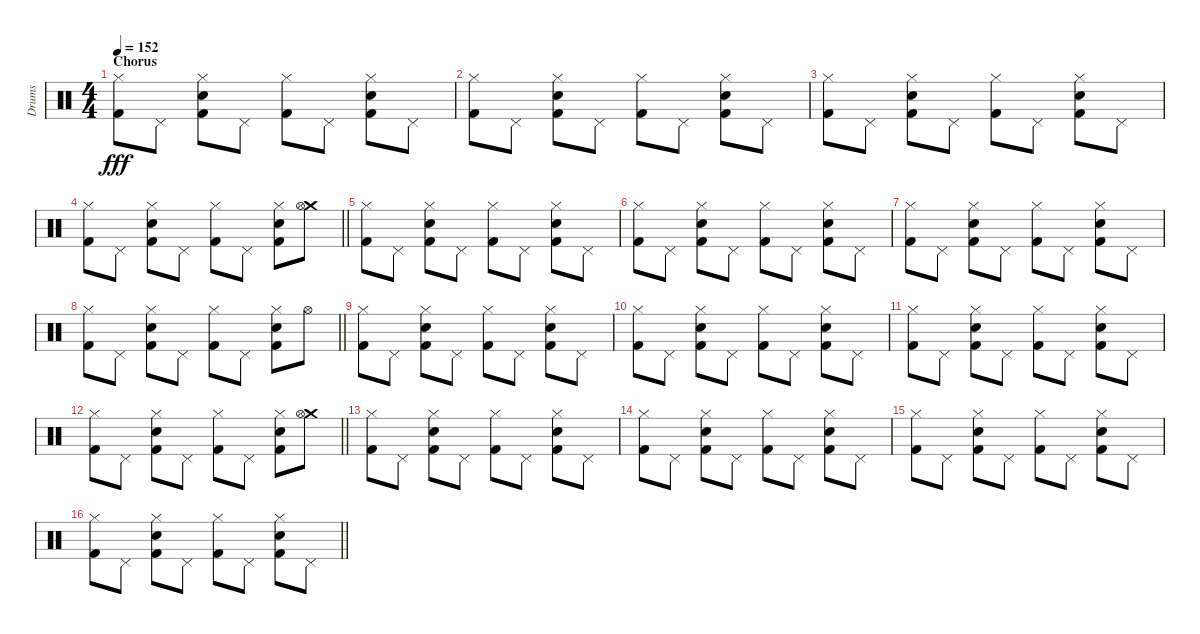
\track ("Drums" "Drums") {instrument percussion}
\staff {score}
\articulation defaults
\ts (4 4)
\section ("" "Chorus")
\tempo 152
\clef neutral
\ks c
("Hi-Hat (closed)" "Kick (hit) 2").8{dy fff} "Pedal Hi-Hat (hit)".8 ("Hi-Hat (closed)" "Electric Snare (hit)" "Kick (hit) 2").8 "Pedal Hi-Hat (hit)".8 ("Hi-Hat (closed)" "Kick (hit) 2").8 "Pedal Hi-Hat (hit)".8 ("Hi-Hat (closed)" "Electric Snare (hit)" "Kick (hit) 2").8 "Pedal Hi-Hat (hit)".8 |
("Hi-Hat (closed)" "Kick (hit) 2").8 "Pedal Hi-Hat (hit)".8 ("Hi-Hat (closed)" "Electric Snare (hit)" "Kick (hit) 2").8 "Pedal Hi-Hat (hit)".8 ("Hi-Hat (closed)" "Kick (hit) 2").8 "Pedal Hi-Hat (hit)".8 ("Hi-Hat (closed)" "Electric Snare (hit)" "Kick (hit) 2").8 "Pedal Hi-Hat (hit)".8 |
("Hi-Hat (closed)" "Kick (hit) 2").8 "Pedal Hi-Hat (hit)".8 ("Hi-Hat (closed)" "Electric Snare (hit)" "Kick (hit) 2").8 "Pedal Hi-Hat (hit)".8 ("Hi-Hat (closed)" "Kick (hit) 2").8 "Pedal Hi-Hat (hit)".8 ("Hi-Hat (closed)" "Electric Snare (hit)" "Kick (hit) 2").8 "Pedal Hi-Hat (hit)".8 |
\barLineRight lightlight
("Hi-Hat (closed)" "Kick (hit) 2").8 "Pedal Hi-Hat (hit)".8 ("Hi-Hat (closed)" "Electric Snare (hit)" "Kick (hit) 2").8 "Pedal Hi-Hat (hit)".8 ("Hi-Hat (closed)" "Kick (hit) 2").8 "Pedal Hi-Hat (hit)".8 ("Hi-Hat (closed)" "Electric Snare (hit)" "Kick (hit) 2").8 ("Crash medium (hit)" "Hi-Hat (open)").8 |
("Hi-Hat (closed)" "Kick (hit) 2").8 "Pedal Hi-Hat (hit)".8 ("Hi-Hat (closed)" "Electric Snare (hit)" "Kick (hit) 2").8 "Pedal Hi-Hat (hit)".8 ("Hi-Hat (closed)" "Kick (hit) 2").8 "Pedal Hi-Hat (hit)".8 ("Hi-Hat (closed)" "Electric Snare (hit)" "Kick (hit) 2").8 "Pedal Hi-Hat (hit)".8 |
("Hi-Hat (closed)" "Kick (hit) 2").8 "Pedal Hi-Hat (hit)".8 ("Hi-Hat (closed)" "Electric Snare (hit)" "Kick (hit) 2").8 "Pedal Hi-Hat (hit)".8 ("Hi-Hat (closed)" "Kick (hit) 2").8 "Pedal Hi-Hat (hit)".8 ("Hi-Hat (closed)" "Electric Snare (hit)" "Kick (hit) 2").8 "Pedal Hi-Hat (hit)".8 |
("Hi-Hat (closed)" "Kick (hit) 2").8 "Pedal Hi-Hat (hit)".8 ("Hi-Hat (closed)" "Electric Snare (hit)" "Kick (hit) 2").8 "Pedal Hi-Hat (hit)".8 ("Hi-Hat (closed)" "Kick (hit) 2").8 "Pedal Hi-Hat (hit)".8 ("Hi-Hat (closed)" "Electric Snare (hit)" "Kick (hit) 2").8 "Pedal Hi-Hat (hit)".8 |
\barLineRight lightlight
("Hi-Hat (closed)" "Kick (hit) 2").8 "Pedal Hi-Hat (hit)".8 ("Hi-Hat (closed)" "Electric Snare (hit)" "Kick (hit) 2").8 "Pedal Hi-Hat (hit)".8 ("Hi-Hat (closed)" "Kick (hit) 2").8 "Pedal Hi-Hat (hit)".8 ("Hi-Hat (closed)" "Electric Snare (hit)" "Kick (hit) 2").8 "Hi-Hat (open)".8 |
("Hi-Hat (closed)" "Kick (hit) 2").8 "Pedal Hi-Hat (hit)".8 ("Hi-Hat (closed)" "Electric Snare (hit)" "Kick (hit) 2").8 "Pedal Hi-Hat (hit)".8 ("Hi-Hat (closed)" "Kick (hit) 2").8 "Pedal Hi-Hat (hit)".8 ("Hi-Hat (closed)" "Electric Snare (hit)" "Kick (hit) 2").8 "Pedal Hi-Hat (hit)".8 |
("Hi-Hat (closed)" "Kick (hit) 2").8 "Pedal Hi-Hat (hit)".8 ("Hi-Hat (closed)" "Electric Snare (hit)" "Kick (hit) 2").8 "Pedal Hi-Hat (hit)".8 ("Hi-Hat (closed)" "Kick (hit) 2").8 "Pedal Hi-Hat (hit)".8 ("Hi-Hat (closed)" "Electric Snare (hit)" "Kick (hit) 2").8 "Pedal Hi-Hat (hit)".8 |
("Hi-Hat (closed)" "Kick (hit) 2").8 "Pedal Hi-Hat (hit)".8 ("Hi-Hat (closed)" "Electric Snare (hit)" "Kick (hit) 2").8 "Pedal Hi-Hat (hit)".8 ("Hi-Hat (closed)" "Kick (hit) 2").8 "Pedal Hi-Hat (hit)".8 ("Hi-Hat (closed)" "Electric Snare (hit)" "Kick (hit) 2").8 "Pedal Hi-Hat (hit)".8 |
\barLineRight lightlight
("Hi-Hat (closed)" "Kick (hit) 2").8 "Pedal Hi-Hat (hit)".8 ("Hi-Hat (closed)" "Electric Snare (hit)" "Kick (hit) 2").8 "Pedal Hi-Hat (hit)".8 ("Hi-Hat (closed)" "Kick (hit) 2").8 "Pedal Hi-Hat (hit)".8 ("Hi-Hat (closed)" "Electric Snare (hit)" "Kick (hit) 2").8 ("Crash medium (hit)" "Hi-Hat (open)").8 |
("Hi-Hat (closed)" "Kick (hit) 2").8 "Pedal Hi-Hat (hit)".8 ("Hi-Hat (closed)" "Electric Snare (hit)" "Kick (hit) 2").8 "Pedal Hi-Hat (hit)".8 ("Hi-Hat (closed)" "Kick (hit) 2").8 "Pedal Hi-Hat (hit)".8 ("Hi-Hat (closed)" "Electric Snare (hit)" "Kick (hit) 2").8 "Pedal Hi-Hat (hit)".8 |
("Hi-Hat (closed)" "Kick (hit) 2").8 "Pedal Hi-Hat (hit)".8 ("Hi-Hat (closed)" "Electric Snare (hit)" "Kick (hit) 2").8 "Pedal Hi-Hat (hit)".8 ("Hi-Hat (closed)" "Kick (hit) 2").8 "Pedal Hi-Hat (hit)".8 ("Hi-Hat (closed)" "Electric Snare (hit)" "Kick (hit) 2").8 "Pedal Hi-Hat (hit)".8 |
("Hi-Hat (closed)" "Kick (hit) 2").8 "Pedal Hi-Hat (hit)".8 ("Hi-Hat (closed)" "Electric Snare (hit)" "Kick (hit) 2").8 "Pedal Hi-Hat (hit)".8 ("Hi-Hat (closed)" "Kick (hit) 2").8 "Pedal Hi-Hat (hit)".8 ("Hi-Hat (closed)" "Electric Snare (hit)" "Kick (hit) 2").8 "Pedal Hi-Hat (hit)".8 |
\barLineRight lightlight
("Hi-Hat (closed)" "Kick (hit) 2").8 "Pedal Hi-Hat (hit)".8 ("Hi-Hat (closed)" "Electric Snare (hit)" "Kick (hit) 2").8 "Pedal Hi-Hat (hit)".8 ("Hi-Hat (closed)" "Kick (hit) 2").8 "Pedal Hi-Hat (hit)".8 ("Hi-Hat (closed)" "Electric Snare (hit)" "Kick (hit) 2").8 "Pedal Hi-Hat (hit)".8
